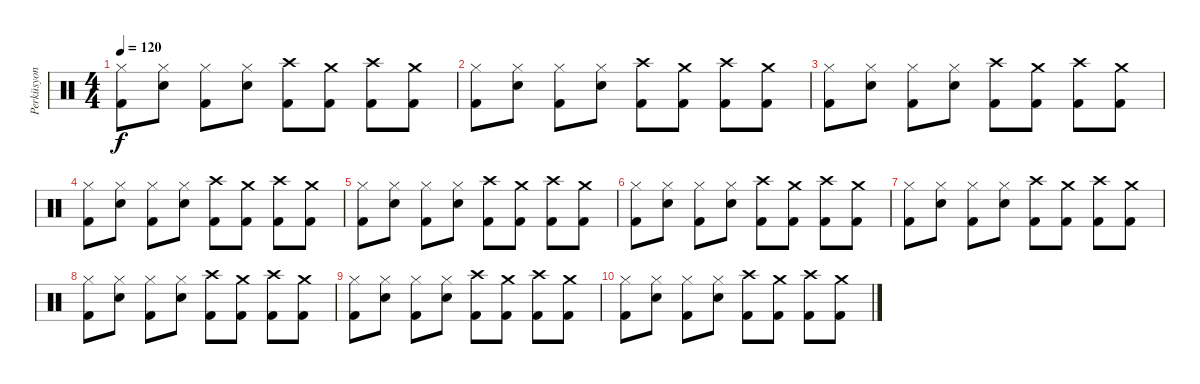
\track ("Perküsyon" "Perküsyon") {instrument percussion}
\staff {score}
\articulation defaults
\ts (4 4)
\tempo 120
\clef neutral
\ks c
("Hi-Hat (closed)" "Kick (hit) 2").8{dy f} ("Hi-Hat (closed)" "Electric Snare (hit)").8 ("Hi-Hat (closed)" "Kick (hit) 2").8 ("Hi-Hat (closed)" "Electric Snare (hit)").8 ("Crash high (hit)" "Kick (hit) 2").8 ("Crash medium (hit)" "Kick (hit) 2").8 ("Crash high (hit)" "Kick (hit) 2").8 ("Crash medium (hit)" "Kick (hit) 2").8 |
("Hi-Hat (closed)" "Kick (hit) 2").8 ("Hi-Hat (closed)" "Electric Snare (hit)").8 ("Hi-Hat (closed)" "Kick (hit) 2").8 ("Hi-Hat (closed)" "Electric Snare (hit)").8 ("Crash high (hit)" "Kick (hit) 2").8 ("Crash medium (hit)" "Kick (hit) 2").8 ("Crash high (hit)" "Kick (hit) 2").8 ("Crash medium (hit)" "Kick (hit) 2").8 |
("Hi-Hat (closed)" "Kick (hit) 2").8 ("Hi-Hat (closed)" "Electric Snare (hit)").8 ("Hi-Hat (closed)" "Kick (hit) 2").8 ("Hi-Hat (closed)" "Electric Snare (hit)").8 ("Crash high (hit)" "Kick (hit) 2").8 ("Crash medium (hit)" "Kick (hit) 2").8 ("Crash high (hit)" "Kick (hit) 2").8 ("Crash medium (hit)" "Kick (hit) 2").8 |
("Hi-Hat (closed)" "Kick (hit) 2").8 ("Hi-Hat (closed)" "Electric Snare (hit)").8 ("Hi-Hat (closed)" "Kick (hit) 2").8 ("Hi-Hat (closed)" "Electric Snare (hit)").8 ("Crash high (hit)" "Kick (hit) 2").8 ("Crash medium (hit)" "Kick (hit) 2").8 ("Crash high (hit)" "Kick (hit) 2").8 ("Crash medium (hit)" "Kick (hit) 2").8 |
("Hi-Hat (closed)" "Kick (hit) 2").8 ("Hi-Hat (closed)" "Electric Snare (hit)").8 ("Hi-Hat (closed)" "Kick (hit) 2").8 ("Hi-Hat (closed)" "Electric Snare (hit)").8 ("Crash high (hit)" "Kick (hit) 2").8 ("Crash medium (hit)" "Kick (hit) 2").8 ("Crash high (hit)" "Kick (hit) 2").8 ("Crash medium (hit)" "Kick (hit) 2").8 |
("Hi-Hat (closed)" "Kick (hit) 2").8 ("Hi-Hat (closed)" "Electric Snare (hit)").8 ("Hi-Hat (closed)" "Kick (hit) 2").8 ("Hi-Hat (closed)" "Electric Snare (hit)").8 ("Crash high (hit)" "Kick (hit) 2").8 ("Crash medium (hit)" "Kick (hit) 2").8 ("Crash high (hit)" "Kick (hit) 2").8 ("Crash medium (hit)" "Kick (hit) 2").8 |
("Hi-Hat (closed)" "Kick (hit) 2").8 ("Hi-Hat (closed)" "Electric Snare (hit)").8 ("Hi-Hat (closed)" "Kick (hit) 2").8 ("Hi-Hat (closed)" "Electric Snare (hit)").8 ("Crash high (hit)" "Kick (hit) 2").8 ("Crash medium (hit)" "Kick (hit) 2").8 ("Crash high (hit)" "Kick (hit) 2").8 ("Crash medium (hit)" "Kick (hit) 2").8 |
("Hi-Hat (closed)" "Kick (hit) 2").8 ("Hi-Hat (closed)" "Electric Snare (hit)").8 ("Hi-Hat (closed)" "Kick (hit) 2").8 ("Hi-Hat (closed)" "Electric Snare (hit)").8 ("Crash high (hit)" "Kick (hit) 2").8 ("Crash medium (hit)" "Kick (hit) 2").8 ("Crash high (hit)" "Kick (hit) 2").8 ("Crash medium (hit)" "Kick (hit) 2").8 |
("Hi-Hat (closed)" "Kick (hit) 2").8 ("Hi-Hat (closed)" "Electric Snare (hit)").8 ("Hi-Hat (closed)" "Kick (hit) 2").8 ("Hi-Hat (closed)" "Electric Snare (hit)").8 ("Crash high (hit)" "Kick (hit) 2").8 ("Crash medium (hit)" "Kick (hit) 2").8 ("Crash high (hit)" "Kick (hit) 2").8 ("Crash medium (hit)" "Kick (hit) 2").8 |
("Hi-Hat (closed)" "Kick (hit) 2").8 ("Hi-Hat (closed)" "Electric Snare (hit)").8 ("Hi-Hat (closed)" "Kick (hit) 2").8 ("Hi-Hat (closed)" "Electric Snare (hit)").8 ("Crash high (hit)" "Kick (hit) 2").8 ("Crash medium (hit)" "Kick (hit) 2").8 ("Crash high (hit)" "Kick (hit) 2").8 ("Crash medium (hit)" "Kick (hit) 2").8
